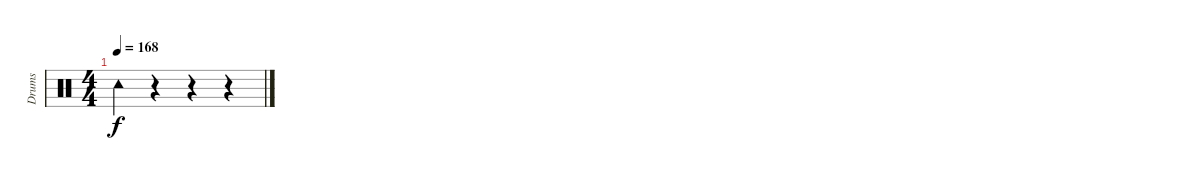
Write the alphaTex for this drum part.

\track ("Drums" "Drums") {instrument percussion}
\staff {score}
\articulation defaults
\ts (4 4)
\tempo 168
\clef neutral
\ks c "Tambourine (hit)".4{dy f}
r.4 r.4 r.4
